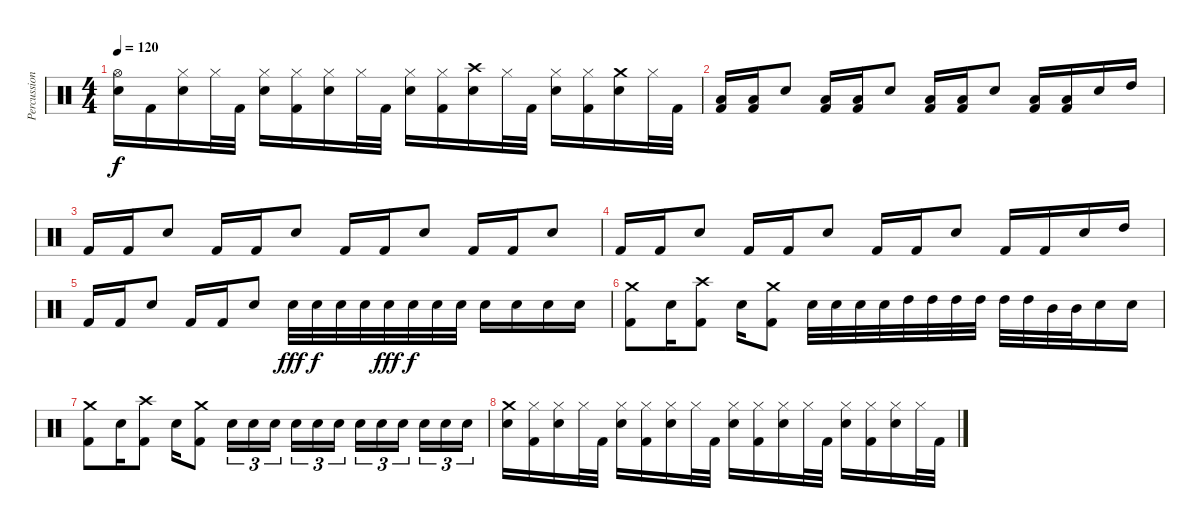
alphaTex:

\track ("Percussion" "Percussion") {instrument percussion}
\staff {score}
\articulation defaults
\ts (4 4)
\tempo 120
\clef neutral
\ks c
("Hi-Hat (open)" "Electric Snare (hit)").16{dy f} "Kick (hit) 2".16 ("Hi-Hat (closed)" "Electric Snare (hit)").16 "Hi-Hat (closed)".32 "Kick (hit) 2".32 ("Hi-Hat (closed)" "Electric Snare (hit)").16 ("Hi-Hat (closed)" "Kick (hit) 2").16 ("Hi-Hat (closed)" "Electric Snare (hit)").16 "Hi-Hat (closed)".32 "Kick (hit) 2".32 ("Hi-Hat (closed)" "Electric Snare (hit)").16 ("Hi-Hat (closed)" "Kick (hit) 2").16 ("Crash high (hit)" "Electric Snare (hit)").16 "Hi-Hat (closed)".32 "Kick (hit) 2".32 ("Hi-Hat (closed)" "Electric Snare (hit)").16 ("Hi-Hat (closed)" "Kick (hit) 2").16 ("Crash medium (hit)" "Electric Snare (hit)").16 "Hi-Hat (closed)".32 "Kick (hit) 2".32 |
("Low Tom (hit)" "Kick (hit) 2").16 ("Low Tom (hit)" "Kick (hit) 2").16 "Electric Snare (hit)".8 ("Low Tom (hit)" "Kick (hit) 2").16 ("Low Tom (hit)" "Kick (hit) 2").16 "Electric Snare (hit)".8 ("Low Tom (hit)" "Kick (hit) 2").16 ("Low Tom (hit)" "Kick (hit) 2").16 "Electric Snare (hit)".8 ("Low Tom (hit)" "Kick (hit) 2").16 ("Low Tom (hit)" "Kick (hit) 2").16 "Electric Snare (hit)".16 "High Tom (hit)".16 |
"Kick (hit) 2".16 "Kick (hit) 2".16 "Electric Snare (hit)".8 "Kick (hit) 2".16 "Kick (hit) 2".16 "Electric Snare (hit)".8 "Kick (hit) 2".16 "Kick (hit) 2".16 "Electric Snare (hit)".8 "Kick (hit) 2".16 "Kick (hit) 2".16 "Electric Snare (hit)".8 |
"Kick (hit) 2".16 "Kick (hit) 2".16 "Electric Snare (hit)".8 "Kick (hit) 2".16 "Kick (hit) 2".16 "Electric Snare (hit)".8 "Kick (hit) 2".16 "Kick (hit) 2".16 "Electric Snare (hit)".8 "Kick (hit) 2".16 "Kick (hit) 2".16 "Electric Snare (hit)".16 "High Tom (hit)".16 |
"Kick (hit) 2".16 "Kick (hit) 2".16 "Electric Snare (hit)".8 "Kick (hit) 2".16 "Kick (hit) 2".16 "Electric Snare (hit)".8 "Electric Snare (hit)".32{dy fff} "Electric Snare (hit)".32{dy f} "Electric Snare (hit)".32 "Electric Snare (hit)".32 "Electric Snare (hit)".32{dy fff} "Electric Snare (hit)".32{dy f} "Electric Snare (hit)".32 "Electric Snare (hit)".32 "Electric Snare (hit)".16 "Electric Snare (hit)".16 "Electric Snare (hit)".16 "Electric Snare (hit)".16 |
("Crash medium (hit)" "Kick (hit) 2").8 "Electric Snare (hit)".16 ("Crash high (hit)" "Kick (hit) 2").8 "Electric Snare (hit)".16 ("Crash medium (hit)" "Kick (hit) 2").8 "Electric Snare (hit)".32 "Electric Snare (hit)".32 "Electric Snare (hit)".32 "Electric Snare (hit)".32 "High Tom (hit)".32 "High Tom (hit)".32 "High Tom (hit)".32 "High Tom (hit)".32 "High Tom (hit)".32 "High Tom (hit)".32 "Mid Tom (hit)".32 "Mid Tom (hit)".32 "Electric Snare (hit)".16 "Electric Snare (hit)".16 |
("Crash medium (hit)" "Kick (hit) 2").8 "Electric Snare (hit)".16 ("Crash high (hit)" "Kick (hit) 2").8 "Electric Snare (hit)".16 ("Crash medium (hit)" "Kick (hit) 2").8 "Electric Snare (hit)".16{tu (3 2)} "Electric Snare (hit)".16{tu (3 2)} "Electric Snare (hit)".16{tu (3 2)} "Electric Snare (hit)".16{tu (3 2)} "Electric Snare (hit)".16{tu (3 2)} "Electric Snare (hit)".16{tu (3 2)} "Electric Snare (hit)".16{tu (3 2)} "Electric Snare (hit)".16{tu (3 2)} "Electric Snare (hit)".16{tu (3 2)} "Electric Snare (hit)".16{tu (3 2)} "Electric Snare (hit)".16{tu (3 2)} "Electric Snare (hit)".16{tu (3 2)} |
("Crash medium (hit)" "Electric Snare (hit)").16 ("Hi-Hat (closed)" "Kick (hit) 2").16 ("Hi-Hat (closed)" "Electric Snare (hit)").16 "Hi-Hat (closed)".32 "Kick (hit) 2".32 ("Hi-Hat (closed)" "Electric Snare (hit)").16 ("Hi-Hat (closed)" "Kick (hit) 2").16 ("Hi-Hat (closed)" "Electric Snare (hit)").16 "Hi-Hat (closed)".32 "Kick (hit) 2".32 ("Hi-Hat (closed)" "Electric Snare (hit)").16 ("Hi-Hat (closed)" "Kick (hit) 2").16 ("Hi-Hat (closed)" "Electric Snare (hit)").16 "Hi-Hat (closed)".32 "Kick (hit) 2".32 ("Hi-Hat (closed)" "Electric Snare (hit)").16 ("Hi-Hat (closed)" "Kick (hit) 2").16 ("Hi-Hat (closed)" "Electric Snare (hit)").16 "Hi-Hat (closed)".32 "Kick (hit) 2".32
